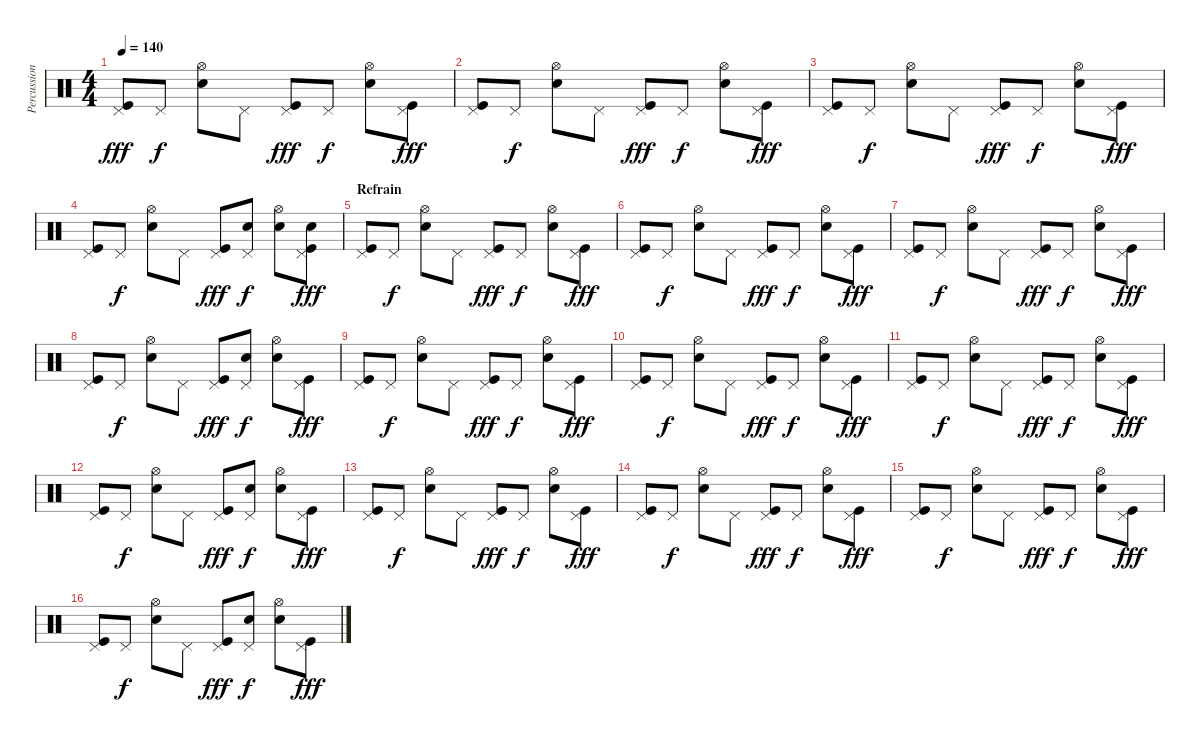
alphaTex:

\track ("Percussion" "Percussion") {instrument percussion}
\staff {score}
\articulation defaults
\ts (4 4)
\tempo 140
\clef neutral
\ks c
("Kick (hit)" "Pedal Hi-Hat (hit)").8{dy fff} "Pedal Hi-Hat (hit)".8{dy f} ("Metronome (bell)" "Hi-Hat (open)").8 "Pedal Hi-Hat (hit)".8 ("Kick (hit)" "Pedal Hi-Hat (hit)").8{dy fff} "Pedal Hi-Hat (hit)".8{dy f} ("Metronome (bell)" "Hi-Hat (open)").8 ("Kick (hit)" "Pedal Hi-Hat (hit)").8{dy fff} |
("Kick (hit)" "Pedal Hi-Hat (hit)").8 "Pedal Hi-Hat (hit)".8{dy f} ("Metronome (bell)" "Hi-Hat (open)").8 "Pedal Hi-Hat (hit)".8 ("Kick (hit)" "Pedal Hi-Hat (hit)").8{dy fff} "Pedal Hi-Hat (hit)".8{dy f} ("Metronome (bell)" "Hi-Hat (open)").8 ("Kick (hit)" "Pedal Hi-Hat (hit)").8{dy fff} |
("Kick (hit)" "Pedal Hi-Hat (hit)").8 "Pedal Hi-Hat (hit)".8{dy f} ("Metronome (bell)" "Hi-Hat (open)").8 "Pedal Hi-Hat (hit)".8 ("Kick (hit)" "Pedal Hi-Hat (hit)").8{dy fff} "Pedal Hi-Hat (hit)".8{dy f} ("Metronome (bell)" "Hi-Hat (open)").8 ("Kick (hit)" "Pedal Hi-Hat (hit)").8{dy fff} |
("Kick (hit)" "Pedal Hi-Hat (hit)").8 "Pedal Hi-Hat (hit)".8{dy f} ("Metronome (bell)" "Hi-Hat (open)").8 "Pedal Hi-Hat (hit)".8 ("Kick (hit)" "Pedal Hi-Hat (hit)").8{dy fff} ("Metronome (bell)" "Pedal Hi-Hat (hit)").8{dy f} ("Metronome (bell)" "Hi-Hat (open)").8 ("Kick (hit)" "Metronome (bell)" "Pedal Hi-Hat (hit)").8{dy fff} |
\section ("" "Refrain")
("Kick (hit)" "Pedal Hi-Hat (hit)").8 "Pedal Hi-Hat (hit)".8{dy f} ("Metronome (bell)" "Hi-Hat (open)").8 "Pedal Hi-Hat (hit)".8 ("Kick (hit)" "Pedal Hi-Hat (hit)").8{dy fff} "Pedal Hi-Hat (hit)".8{dy f} ("Metronome (bell)" "Hi-Hat (open)").8 ("Kick (hit)" "Pedal Hi-Hat (hit)").8{dy fff} |
("Kick (hit)" "Pedal Hi-Hat (hit)").8 "Pedal Hi-Hat (hit)".8{dy f} ("Metronome (bell)" "Hi-Hat (open)").8 "Pedal Hi-Hat (hit)".8 ("Kick (hit)" "Pedal Hi-Hat (hit)").8{dy fff} "Pedal Hi-Hat (hit)".8{dy f} ("Metronome (bell)" "Hi-Hat (open)").8 ("Kick (hit)" "Pedal Hi-Hat (hit)").8{dy fff} |
("Kick (hit)" "Pedal Hi-Hat (hit)").8 "Pedal Hi-Hat (hit)".8{dy f} ("Metronome (bell)" "Hi-Hat (open)").8 "Pedal Hi-Hat (hit)".8 ("Kick (hit)" "Pedal Hi-Hat (hit)").8{dy fff} "Pedal Hi-Hat (hit)".8{dy f} ("Metronome (bell)" "Hi-Hat (open)").8 ("Kick (hit)" "Pedal Hi-Hat (hit)").8{dy fff} |
("Kick (hit)" "Pedal Hi-Hat (hit)").8 "Pedal Hi-Hat (hit)".8{dy f} ("Metronome (bell)" "Hi-Hat (open)").8 "Pedal Hi-Hat (hit)".8 ("Kick (hit)" "Pedal Hi-Hat (hit)").8{dy fff} ("Metronome (bell)" "Pedal Hi-Hat (hit)").8{dy f} ("Metronome (bell)" "Hi-Hat (open)").8 ("Kick (hit)" "Pedal Hi-Hat (hit)").8{dy fff} |
("Kick (hit)" "Pedal Hi-Hat (hit)").8 "Pedal Hi-Hat (hit)".8{dy f} ("Metronome (bell)" "Hi-Hat (open)").8 "Pedal Hi-Hat (hit)".8 ("Kick (hit)" "Pedal Hi-Hat (hit)").8{dy fff} "Pedal Hi-Hat (hit)".8{dy f} ("Metronome (bell)" "Hi-Hat (open)").8 ("Kick (hit)" "Pedal Hi-Hat (hit)").8{dy fff} |
("Kick (hit)" "Pedal Hi-Hat (hit)").8 "Pedal Hi-Hat (hit)".8{dy f} ("Metronome (bell)" "Hi-Hat (open)").8 "Pedal Hi-Hat (hit)".8 ("Kick (hit)" "Pedal Hi-Hat (hit)").8{dy fff} "Pedal Hi-Hat (hit)".8{dy f} ("Metronome (bell)" "Hi-Hat (open)").8 ("Kick (hit)" "Pedal Hi-Hat (hit)").8{dy fff} |
("Kick (hit)" "Pedal Hi-Hat (hit)").8 "Pedal Hi-Hat (hit)".8{dy f} ("Metronome (bell)" "Hi-Hat (open)").8 "Pedal Hi-Hat (hit)".8 ("Kick (hit)" "Pedal Hi-Hat (hit)").8{dy fff} "Pedal Hi-Hat (hit)".8{dy f} ("Metronome (bell)" "Hi-Hat (open)").8 ("Kick (hit)" "Pedal Hi-Hat (hit)").8{dy fff} |
("Kick (hit)" "Pedal Hi-Hat (hit)").8 "Pedal Hi-Hat (hit)".8{dy f} ("Metronome (bell)" "Hi-Hat (open)").8 "Pedal Hi-Hat (hit)".8 ("Kick (hit)" "Pedal Hi-Hat (hit)").8{dy fff} ("Metronome (bell)" "Pedal Hi-Hat (hit)").8{dy f} ("Metronome (bell)" "Hi-Hat (open)").8 ("Kick (hit)" "Pedal Hi-Hat (hit)").8{dy fff} |
("Kick (hit)" "Pedal Hi-Hat (hit)").8 "Pedal Hi-Hat (hit)".8{dy f} ("Metronome (bell)" "Hi-Hat (open)").8 "Pedal Hi-Hat (hit)".8 ("Kick (hit)" "Pedal Hi-Hat (hit)").8{dy fff} "Pedal Hi-Hat (hit)".8{dy f} ("Metronome (bell)" "Hi-Hat (open)").8 ("Kick (hit)" "Pedal Hi-Hat (hit)").8{dy fff} |
("Kick (hit)" "Pedal Hi-Hat (hit)").8 "Pedal Hi-Hat (hit)".8{dy f} ("Metronome (bell)" "Hi-Hat (open)").8 "Pedal Hi-Hat (hit)".8 ("Kick (hit)" "Pedal Hi-Hat (hit)").8{dy fff} "Pedal Hi-Hat (hit)".8{dy f} ("Metronome (bell)" "Hi-Hat (open)").8 ("Kick (hit)" "Pedal Hi-Hat (hit)").8{dy fff} |
("Kick (hit)" "Pedal Hi-Hat (hit)").8 "Pedal Hi-Hat (hit)".8{dy f} ("Metronome (bell)" "Hi-Hat (open)").8 "Pedal Hi-Hat (hit)".8 ("Kick (hit)" "Pedal Hi-Hat (hit)").8{dy fff} "Pedal Hi-Hat (hit)".8{dy f} ("Metronome (bell)" "Hi-Hat (open)").8 ("Kick (hit)" "Pedal Hi-Hat (hit)").8{dy fff} |
("Kick (hit)" "Pedal Hi-Hat (hit)").8 "Pedal Hi-Hat (hit)".8{dy f} ("Metronome (bell)" "Hi-Hat (open)").8 "Pedal Hi-Hat (hit)".8 ("Kick (hit)" "Pedal Hi-Hat (hit)").8{dy fff} ("Metronome (bell)" "Pedal Hi-Hat (hit)").8{dy f} ("Metronome (bell)" "Hi-Hat (open)").8 ("Kick (hit)" "Pedal Hi-Hat (hit)").8{dy fff}
